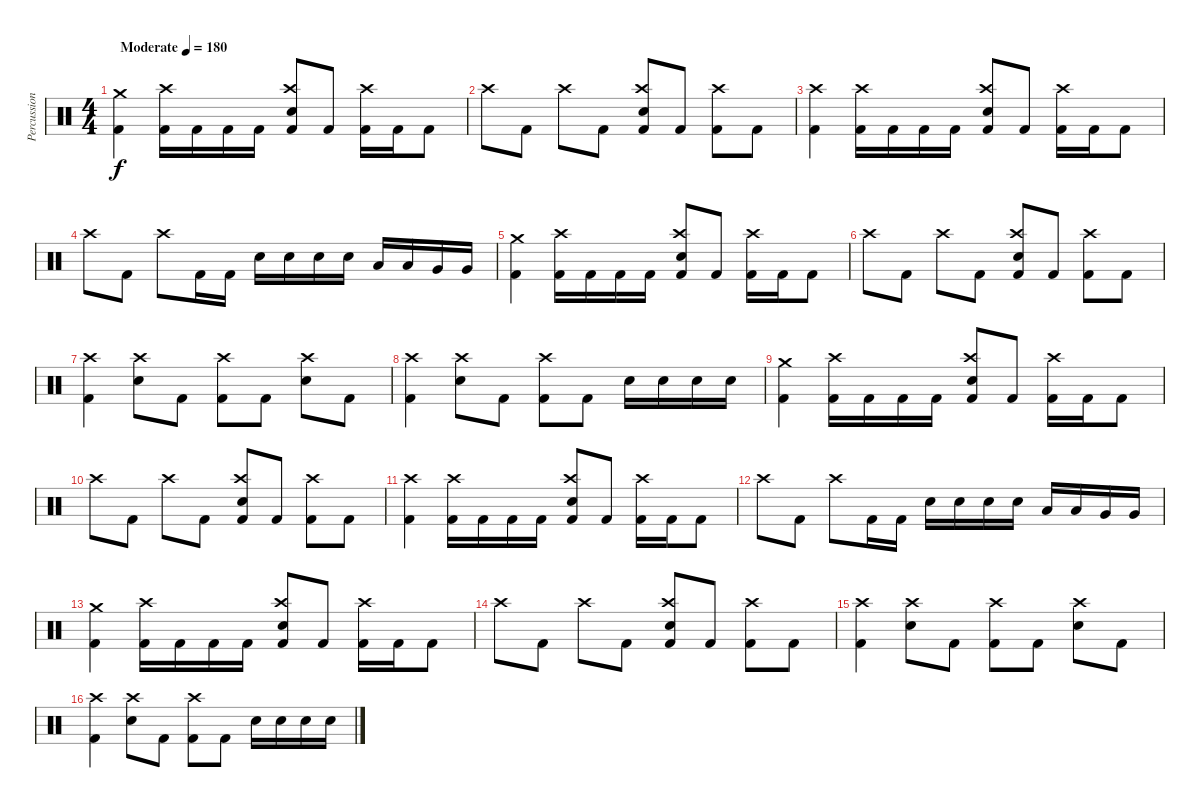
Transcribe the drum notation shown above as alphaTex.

\track ("Percussion" "Percussion") {instrument percussion}
\staff {score}
\articulation defaults
\ts (4 4)
\tempo (180 "Moderate")
\clef neutral
\ks c
("Crash medium (hit)" "Kick (hit) 2").4{dy f} ("Crash high (hit)" "Kick (hit) 2").16 "Kick (hit) 2".16 "Kick (hit) 2".16 "Kick (hit) 2".16 ("Crash high (hit)" "Electric Snare (hit)" "Kick (hit) 2").8 "Kick (hit) 2".8 ("Crash high (hit)" "Kick (hit) 2").16 "Kick (hit) 2".16 "Kick (hit) 2".8 |
"Crash high (hit)".8 "Kick (hit) 2".8 "Crash high (hit)".8 "Kick (hit) 2".8 ("Crash high (hit)" "Electric Snare (hit)" "Kick (hit) 2").8 "Kick (hit) 2".8 ("Crash high (hit)" "Kick (hit) 2").8 "Kick (hit) 2".8 |
("Crash high (hit)" "Kick (hit) 2").4 ("Crash high (hit)" "Kick (hit) 2").16 "Kick (hit) 2".16 "Kick (hit) 2".16 "Kick (hit) 2".16 ("Crash high (hit)" "Electric Snare (hit)" "Kick (hit) 2").8 "Kick (hit) 2".8 ("Crash high (hit)" "Kick (hit) 2").16 "Kick (hit) 2".16 "Kick (hit) 2".8 |
"Crash high (hit)".8 "Kick (hit) 2".8 "Crash high (hit)".8 "Kick (hit) 2".16 "Kick (hit) 2".16 "Electric Snare (hit)".16 "Electric Snare (hit)".16 "Electric Snare (hit)".16 "Electric Snare (hit)".16 "Low Tom (hit)".16 "Low Tom (hit)".16 "Very Low Tom (hit)".16 "Very Low Tom (hit)".16 |
("Crash medium (hit)" "Kick (hit) 2").4 ("Crash high (hit)" "Kick (hit) 2").16 "Kick (hit) 2".16 "Kick (hit) 2".16 "Kick (hit) 2".16 ("Crash high (hit)" "Electric Snare (hit)" "Kick (hit) 2").8 "Kick (hit) 2".8 ("Crash high (hit)" "Kick (hit) 2").16 "Kick (hit) 2".16 "Kick (hit) 2".8 |
"Crash high (hit)".8 "Kick (hit) 2".8 "Crash high (hit)".8 "Kick (hit) 2".8 ("Crash high (hit)" "Electric Snare (hit)" "Kick (hit) 2").8 "Kick (hit) 2".8 ("Crash high (hit)" "Kick (hit) 2").8 "Kick (hit) 2".8 |
("Crash high (hit)" "Kick (hit) 2").4 ("Crash high (hit)" "Electric Snare (hit)").8 "Kick (hit) 2".8 ("Crash high (hit)" "Kick (hit) 2").8 "Kick (hit) 2".8 ("Crash high (hit)" "Electric Snare (hit)").8 "Kick (hit) 2".8 |
("Crash high (hit)" "Kick (hit) 2").4 ("Crash high (hit)" "Electric Snare (hit)").8 "Kick (hit) 2".8 ("Crash high (hit)" "Kick (hit) 2").8 "Kick (hit) 2".8 "Electric Snare (hit)".16 "Electric Snare (hit)".16 "Electric Snare (hit)".16 "Electric Snare (hit)".16 |
("Crash medium (hit)" "Kick (hit) 2").4 ("Crash high (hit)" "Kick (hit) 2").16 "Kick (hit) 2".16 "Kick (hit) 2".16 "Kick (hit) 2".16 ("Crash high (hit)" "Electric Snare (hit)" "Kick (hit) 2").8 "Kick (hit) 2".8 ("Crash high (hit)" "Kick (hit) 2").16 "Kick (hit) 2".16 "Kick (hit) 2".8 |
"Crash high (hit)".8 "Kick (hit) 2".8 "Crash high (hit)".8 "Kick (hit) 2".8 ("Crash high (hit)" "Electric Snare (hit)" "Kick (hit) 2").8 "Kick (hit) 2".8 ("Crash high (hit)" "Kick (hit) 2").8 "Kick (hit) 2".8 |
("Crash high (hit)" "Kick (hit) 2").4 ("Crash high (hit)" "Kick (hit) 2").16 "Kick (hit) 2".16 "Kick (hit) 2".16 "Kick (hit) 2".16 ("Crash high (hit)" "Electric Snare (hit)" "Kick (hit) 2").8 "Kick (hit) 2".8 ("Crash high (hit)" "Kick (hit) 2").16 "Kick (hit) 2".16 "Kick (hit) 2".8 |
"Crash high (hit)".8 "Kick (hit) 2".8 "Crash high (hit)".8 "Kick (hit) 2".16 "Kick (hit) 2".16 "Electric Snare (hit)".16 "Electric Snare (hit)".16 "Electric Snare (hit)".16 "Electric Snare (hit)".16 "Low Tom (hit)".16 "Low Tom (hit)".16 "Very Low Tom (hit)".16 "Very Low Tom (hit)".16 |
("Crash medium (hit)" "Kick (hit) 2").4 ("Crash high (hit)" "Kick (hit) 2").16 "Kick (hit) 2".16 "Kick (hit) 2".16 "Kick (hit) 2".16 ("Crash high (hit)" "Electric Snare (hit)" "Kick (hit) 2").8 "Kick (hit) 2".8 ("Crash high (hit)" "Kick (hit) 2").16 "Kick (hit) 2".16 "Kick (hit) 2".8 |
"Crash high (hit)".8 "Kick (hit) 2".8 "Crash high (hit)".8 "Kick (hit) 2".8 ("Crash high (hit)" "Electric Snare (hit)" "Kick (hit) 2").8 "Kick (hit) 2".8 ("Crash high (hit)" "Kick (hit) 2").8 "Kick (hit) 2".8 |
("Crash high (hit)" "Kick (hit) 2").4 ("Crash high (hit)" "Electric Snare (hit)").8 "Kick (hit) 2".8 ("Crash high (hit)" "Kick (hit) 2").8 "Kick (hit) 2".8 ("Crash high (hit)" "Electric Snare (hit)").8 "Kick (hit) 2".8 |
("Crash high (hit)" "Kick (hit) 2").4 ("Crash high (hit)" "Electric Snare (hit)").8 "Kick (hit) 2".8 ("Crash high (hit)" "Kick (hit) 2").8 "Kick (hit) 2".8 "Electric Snare (hit)".16 "Electric Snare (hit)".16 "Electric Snare (hit)".16 "Electric Snare (hit)".16
